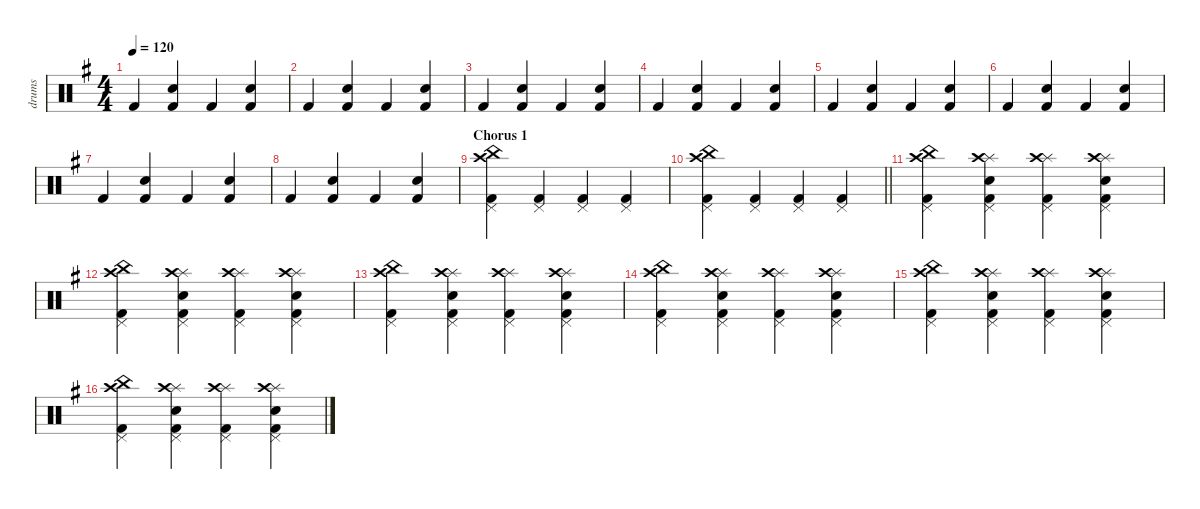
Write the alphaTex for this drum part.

\defaultSystemsLayout 4
\hideDynamics
\bracketExtendMode nobrackets
\otherSystemsTrackNameOrientation horizontal
\track ("drums" "drums") {instrument percussion}
\staff {score}
\articulation defaults
\ts (4 4)
\tempo 120
\clef neutral
\scale
1.07945
\ks eminor "Kick (hit) 2"{acc forcenatural}.4{dy mf beam Up}
("Kick (hit) 2"{acc forcenatural} "Snare (hit) 2"{acc forcenatural}).4{beam Up} "Kick (hit) 2"{acc forcenatural}.4{beam Up} ("Kick (hit) 2"{acc forcenatural} "Snare (hit) 2"{acc forcenatural}).4{beam Up} |
\scale
0.973518 "Kick (hit) 2"{acc forcenatural}.4{beam Up} ("Kick (hit) 2"{acc forcenatural} "Snare (hit) 2"{acc forcenatural}).4{beam Up} "Kick (hit) 2"{acc forcenatural}.4{beam Up} ("Kick (hit) 2"{acc forcenatural} "Snare (hit) 2"{acc forcenatural}).4{beam Up} |
\scale
0.973518 "Kick (hit) 2"{acc forcenatural}.4{beam Up} ("Kick (hit) 2"{acc forcenatural} "Snare (hit) 2"{acc forcenatural}).4{beam Up} "Kick (hit) 2"{acc forcenatural}.4{beam Up} ("Kick (hit) 2"{acc forcenatural} "Snare (hit) 2"{acc forcenatural}).4{beam Up} |
\scale
0.973518 "Kick (hit) 2"{acc forcenatural}.4{beam Up} ("Kick (hit) 2"{acc forcenatural} "Snare (hit) 2"{acc forcenatural}).4{beam Up} "Kick (hit) 2"{acc forcenatural}.4{beam Up} ("Kick (hit) 2"{acc forcenatural} "Snare (hit) 2"{acc forcenatural}).4{beam Up} |
\scale
1.07945 "Kick (hit) 2"{acc forcenatural}.4{beam Up} ("Kick (hit) 2"{acc forcenatural} "Snare (hit) 2"{acc forcenatural}).4{beam Up} "Kick (hit) 2"{acc forcenatural}.4{beam Up} ("Kick (hit) 2"{acc forcenatural} "Snare (hit) 2"{acc forcenatural}).4{beam Up} |
\scale
0.973518 "Kick (hit) 2"{acc forcenatural}.4{beam Up} ("Kick (hit) 2"{acc forcenatural} "Snare (hit) 2"{acc forcenatural}).4{beam Up} "Kick (hit) 2"{acc forcenatural}.4{beam Up} ("Kick (hit) 2"{acc forcenatural} "Snare (hit) 2"{acc forcenatural}).4{beam Up} |
\scale
0.973518 "Kick (hit) 2"{acc forcenatural}.4{beam Up} ("Kick (hit) 2"{acc forcenatural} "Snare (hit) 2"{acc forcenatural}).4{beam Up} "Kick (hit) 2"{acc forcenatural}.4{beam Up} ("Kick (hit) 2"{acc forcenatural} "Snare (hit) 2"{acc forcenatural}).4{beam Up} |
\scale
0.973518 "Kick (hit) 2"{acc forcenatural}.4{beam Up} ("Kick (hit) 2"{acc forcenatural} "Snare (hit) 2"{acc forcenatural}).4{beam Up} "Kick (hit) 2"{acc forcenatural}.4{beam Up} ("Kick (hit) 2"{acc forcenatural} "Snare (hit) 2"{acc forcenatural}).4{beam Up} |
\section ("" "Chorus 1")
\scale
1.07945 ("Kick (hit) 2"{acc forcenatural} "China (hit)"{acc forcenatural} "Crash high (hit)"{acc forcenatural} "Pedal Hi-Hat (hit)"{acc forcenatural}).4{beam Down} ("Kick (hit) 2"{acc forcenatural} "Pedal Hi-Hat (hit)"{acc forcenatural}).4{beam Up} ("Kick (hit) 2"{acc forcenatural} "Pedal Hi-Hat (hit)"{acc forcenatural}).4{beam Up} ("Kick (hit) 2"{acc forcenatural} "Pedal Hi-Hat (hit)"{acc forcenatural}).4{beam Up} |
\scale
0.973518
\barLineRight lightlight
("Kick (hit) 2"{acc forcenatural} "China (hit)"{acc forcenatural} "Crash high (hit)"{acc forcenatural} "Pedal Hi-Hat (hit)"{acc forcenatural}).4{beam Down} ("Kick (hit) 2"{acc forcenatural} "Pedal Hi-Hat (hit)"{acc forcenatural}).4{beam Up} ("Kick (hit) 2"{acc forcenatural} "Pedal Hi-Hat (hit)"{acc forcenatural}).4{beam Up} ("Kick (hit) 2"{acc forcenatural} "Pedal Hi-Hat (hit)"{acc forcenatural}).4{beam Up} |
\scale
0.973518 ("Kick (hit) 2"{acc forcenatural} "China (hit)"{acc forcenatural} "Crash high (hit)"{acc forcenatural} "Pedal Hi-Hat (hit)"{acc forcenatural}).4{beam Down} ("Kick (hit) 2"{acc forcenatural} "Pedal Hi-Hat (hit)"{acc forcenatural} "Snare (hit) 2"{acc forcenatural} "Splash (hit)"{acc forcenatural} "Crash high (hit)"{acc forcenatural}).4{beam Down} ("Kick (hit) 2"{acc forcenatural} "Pedal Hi-Hat (hit)"{acc forcenatural} "Splash (hit)"{acc forcenatural} "Crash high (hit)"{acc forcenatural}).4{beam Down} ("Kick (hit) 2"{acc forcenatural} "Pedal Hi-Hat (hit)"{acc forcenatural} "Snare (hit) 2"{acc forcenatural} "Splash (hit)"{acc forcenatural} "Crash high (hit)"{acc forcenatural}).4{beam Down} |
\scale
0.973518 ("Kick (hit) 2"{acc forcenatural} "China (hit)"{acc forcenatural} "Crash high (hit)"{acc forcenatural} "Pedal Hi-Hat (hit)"{acc forcenatural}).4{beam Down} ("Kick (hit) 2"{acc forcenatural} "Pedal Hi-Hat (hit)"{acc forcenatural} "Snare (hit) 2"{acc forcenatural} "Splash (hit)"{acc forcenatural} "Crash high (hit)"{acc forcenatural}).4{beam Down} ("Kick (hit) 2"{acc forcenatural} "Pedal Hi-Hat (hit)"{acc forcenatural} "Splash (hit)"{acc forcenatural} "Crash high (hit)"{acc forcenatural}).4{beam Down} ("Kick (hit) 2"{acc forcenatural} "Pedal Hi-Hat (hit)"{acc forcenatural} "Snare (hit) 2"{acc forcenatural} "Splash (hit)"{acc forcenatural} "Crash high (hit)"{acc forcenatural}).4{beam Down} |
\scale
1.07945 ("Kick (hit) 2"{acc forcenatural} "China (hit)"{acc forcenatural} "Crash high (hit)"{acc forcenatural} "Pedal Hi-Hat (hit)"{acc forcenatural}).4{beam Down} ("Kick (hit) 2"{acc forcenatural} "Pedal Hi-Hat (hit)"{acc forcenatural} "Snare (hit) 2"{acc forcenatural} "Splash (hit)"{acc forcenatural} "Crash high (hit)"{acc forcenatural}).4{beam Down} ("Kick (hit) 2"{acc forcenatural} "Pedal Hi-Hat (hit)"{acc forcenatural} "Splash (hit)"{acc forcenatural} "Crash high (hit)"{acc forcenatural}).4{beam Down} ("Kick (hit) 2"{acc forcenatural} "Pedal Hi-Hat (hit)"{acc forcenatural} "Snare (hit) 2"{acc forcenatural} "Splash (hit)"{acc forcenatural} "Crash high (hit)"{acc forcenatural}).4{beam Down} |
\scale
0.973518 ("Kick (hit) 2"{acc forcenatural} "China (hit)"{acc forcenatural} "Crash high (hit)"{acc forcenatural} "Pedal Hi-Hat (hit)"{acc forcenatural}).4{beam Down} ("Kick (hit) 2"{acc forcenatural} "Pedal Hi-Hat (hit)"{acc forcenatural} "Snare (hit) 2"{acc forcenatural} "Splash (hit)"{acc forcenatural} "Crash high (hit)"{acc forcenatural}).4{beam Down} ("Kick (hit) 2"{acc forcenatural} "Pedal Hi-Hat (hit)"{acc forcenatural} "Splash (hit)"{acc forcenatural} "Crash high (hit)"{acc forcenatural}).4{beam Down} ("Kick (hit) 2"{acc forcenatural} "Pedal Hi-Hat (hit)"{acc forcenatural} "Snare (hit) 2"{acc forcenatural} "Splash (hit)"{acc forcenatural} "Crash high (hit)"{acc forcenatural}).4{beam Down} |
\scale
0.973518 ("Kick (hit) 2"{acc forcenatural} "China (hit)"{acc forcenatural} "Crash high (hit)"{acc forcenatural} "Pedal Hi-Hat (hit)"{acc forcenatural}).4{beam Down} ("Kick (hit) 2"{acc forcenatural} "Pedal Hi-Hat (hit)"{acc forcenatural} "Snare (hit) 2"{acc forcenatural} "Splash (hit)"{acc forcenatural} "Crash high (hit)"{acc forcenatural}).4{beam Down} ("Kick (hit) 2"{acc forcenatural} "Pedal Hi-Hat (hit)"{acc forcenatural} "Splash (hit)"{acc forcenatural} "Crash high (hit)"{acc forcenatural}).4{beam Down} ("Kick (hit) 2"{acc forcenatural} "Pedal Hi-Hat (hit)"{acc forcenatural} "Snare (hit) 2"{acc forcenatural} "Splash (hit)"{acc forcenatural} "Crash high (hit)"{acc forcenatural}).4{beam Down} |
\scale
0.973518 ("Kick (hit) 2"{acc forcenatural} "China (hit)"{acc forcenatural} "Crash high (hit)"{acc forcenatural} "Pedal Hi-Hat (hit)"{acc forcenatural}).4{beam Down} ("Kick (hit) 2"{acc forcenatural} "Pedal Hi-Hat (hit)"{acc forcenatural} "Snare (hit) 2"{acc forcenatural} "Splash (hit)"{acc forcenatural} "Crash high (hit)"{acc forcenatural}).4{beam Down} ("Kick (hit) 2"{acc forcenatural} "Pedal Hi-Hat (hit)"{acc forcenatural} "Splash (hit)"{acc forcenatural} "Crash high (hit)"{acc forcenatural}).4{beam Down} ("Kick (hit) 2"{acc forcenatural} "Pedal Hi-Hat (hit)"{acc forcenatural} "Snare (hit) 2"{acc forcenatural} "Splash (hit)"{acc forcenatural} "Crash high (hit)"{acc forcenatural}).4{beam Down}
